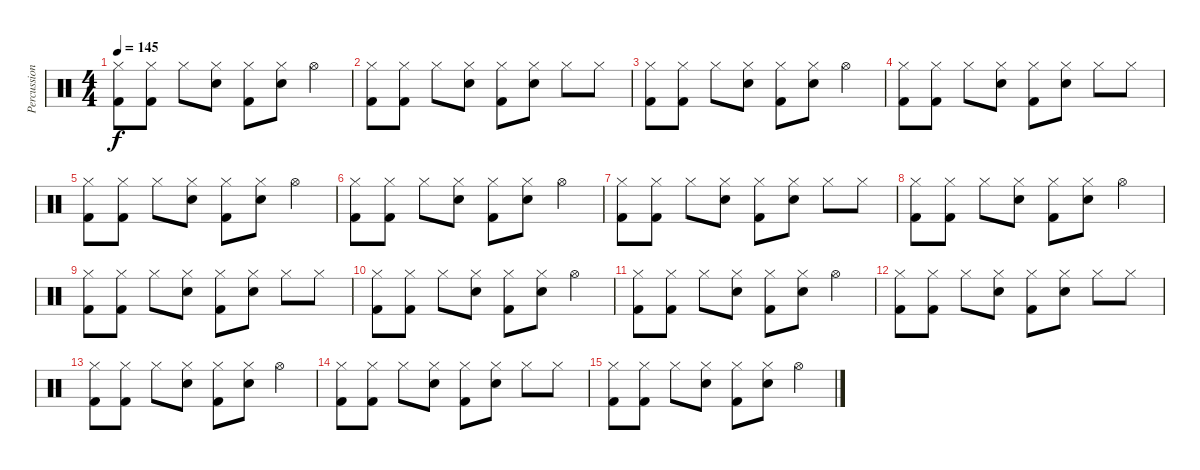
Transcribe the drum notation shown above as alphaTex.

\track ("Percussion" "Percussion") {instrument percussion}
\staff {score}
\articulation defaults
\ts (4 4)
\tempo 145
\clef neutral
\ks c
("Hi-Hat (closed)" "Kick (hit) 2").8{dy f} ("Hi-Hat (closed)" "Kick (hit) 2").8 "Hi-Hat (closed)".8 ("Hi-Hat (closed)" "Electric Snare (hit)").8 ("Hi-Hat (closed)" "Kick (hit) 2").8 ("Hi-Hat (closed)" "Electric Snare (hit)").8 "Hi-Hat (open)".4 |
("Hi-Hat (closed)" "Kick (hit) 2").8 ("Hi-Hat (closed)" "Kick (hit) 2").8 "Hi-Hat (closed)".8 ("Hi-Hat (closed)" "Electric Snare (hit)").8 ("Hi-Hat (closed)" "Kick (hit) 2").8 ("Hi-Hat (closed)" "Electric Snare (hit)").8 "Hi-Hat (closed)".8 "Hi-Hat (closed)".8 |
("Hi-Hat (closed)" "Kick (hit) 2").8 ("Hi-Hat (closed)" "Kick (hit) 2").8 "Hi-Hat (closed)".8 ("Hi-Hat (closed)" "Electric Snare (hit)").8 ("Hi-Hat (closed)" "Kick (hit) 2").8 ("Hi-Hat (closed)" "Electric Snare (hit)").8 "Hi-Hat (open)".4 |
("Hi-Hat (closed)" "Kick (hit) 2").8 ("Hi-Hat (closed)" "Kick (hit) 2").8 "Hi-Hat (closed)".8 ("Hi-Hat (closed)" "Electric Snare (hit)").8 ("Hi-Hat (closed)" "Kick (hit) 2").8 ("Hi-Hat (closed)" "Electric Snare (hit)").8 "Hi-Hat (closed)".8 "Hi-Hat (closed)".8 |
("Hi-Hat (closed)" "Kick (hit) 2").8 ("Hi-Hat (closed)" "Kick (hit) 2").8 "Hi-Hat (closed)".8 ("Hi-Hat (closed)" "Electric Snare (hit)").8 ("Hi-Hat (closed)" "Kick (hit) 2").8 ("Hi-Hat (closed)" "Electric Snare (hit)").8 "Hi-Hat (open)".4 |
("Hi-Hat (closed)" "Kick (hit) 2").8 ("Hi-Hat (closed)" "Kick (hit) 2").8 "Hi-Hat (closed)".8 ("Hi-Hat (closed)" "Electric Snare (hit)").8 ("Hi-Hat (closed)" "Kick (hit) 2").8 ("Hi-Hat (closed)" "Electric Snare (hit)").8 "Hi-Hat (open)".4 |
("Hi-Hat (closed)" "Kick (hit) 2").8 ("Hi-Hat (closed)" "Kick (hit) 2").8 "Hi-Hat (closed)".8 ("Hi-Hat (closed)" "Electric Snare (hit)").8 ("Hi-Hat (closed)" "Kick (hit) 2").8 ("Hi-Hat (closed)" "Electric Snare (hit)").8 "Hi-Hat (closed)".8 "Hi-Hat (closed)".8 |
("Hi-Hat (closed)" "Kick (hit) 2").8 ("Hi-Hat (closed)" "Kick (hit) 2").8 "Hi-Hat (closed)".8 ("Hi-Hat (closed)" "Electric Snare (hit)").8 ("Hi-Hat (closed)" "Kick (hit) 2").8 ("Hi-Hat (closed)" "Electric Snare (hit)").8 "Hi-Hat (open)".4 |
("Hi-Hat (closed)" "Kick (hit) 2").8 ("Hi-Hat (closed)" "Kick (hit) 2").8 "Hi-Hat (closed)".8 ("Hi-Hat (closed)" "Electric Snare (hit)").8 ("Hi-Hat (closed)" "Kick (hit) 2").8 ("Hi-Hat (closed)" "Electric Snare (hit)").8 "Hi-Hat (closed)".8 "Hi-Hat (closed)".8 |
("Hi-Hat (closed)" "Kick (hit) 2").8 ("Hi-Hat (closed)" "Kick (hit) 2").8 "Hi-Hat (closed)".8 ("Hi-Hat (closed)" "Electric Snare (hit)").8 ("Hi-Hat (closed)" "Kick (hit) 2").8 ("Hi-Hat (closed)" "Electric Snare (hit)").8 "Hi-Hat (open)".4 |
("Hi-Hat (closed)" "Kick (hit) 2").8 ("Hi-Hat (closed)" "Kick (hit) 2").8 "Hi-Hat (closed)".8 ("Hi-Hat (closed)" "Electric Snare (hit)").8 ("Hi-Hat (closed)" "Kick (hit) 2").8 ("Hi-Hat (closed)" "Electric Snare (hit)").8 "Hi-Hat (open)".4 |
("Hi-Hat (closed)" "Kick (hit) 2").8 ("Hi-Hat (closed)" "Kick (hit) 2").8 "Hi-Hat (closed)".8 ("Hi-Hat (closed)" "Electric Snare (hit)").8 ("Hi-Hat (closed)" "Kick (hit) 2").8 ("Hi-Hat (closed)" "Electric Snare (hit)").8 "Hi-Hat (closed)".8 "Hi-Hat (closed)".8 |
("Hi-Hat (closed)" "Kick (hit) 2").8 ("Hi-Hat (closed)" "Kick (hit) 2").8 "Hi-Hat (closed)".8 ("Hi-Hat (closed)" "Electric Snare (hit)").8 ("Hi-Hat (closed)" "Kick (hit) 2").8 ("Hi-Hat (closed)" "Electric Snare (hit)").8 "Hi-Hat (open)".4 |
("Hi-Hat (closed)" "Kick (hit) 2").8 ("Hi-Hat (closed)" "Kick (hit) 2").8 "Hi-Hat (closed)".8 ("Hi-Hat (closed)" "Electric Snare (hit)").8 ("Hi-Hat (closed)" "Kick (hit) 2").8 ("Hi-Hat (closed)" "Electric Snare (hit)").8 "Hi-Hat (closed)".8 "Hi-Hat (closed)".8 |
("Hi-Hat (closed)" "Kick (hit) 2").8 ("Hi-Hat (closed)" "Kick (hit) 2").8 "Hi-Hat (closed)".8 ("Hi-Hat (closed)" "Electric Snare (hit)").8 ("Hi-Hat (closed)" "Kick (hit) 2").8 ("Hi-Hat (closed)" "Electric Snare (hit)").8 "Hi-Hat (open)".4
